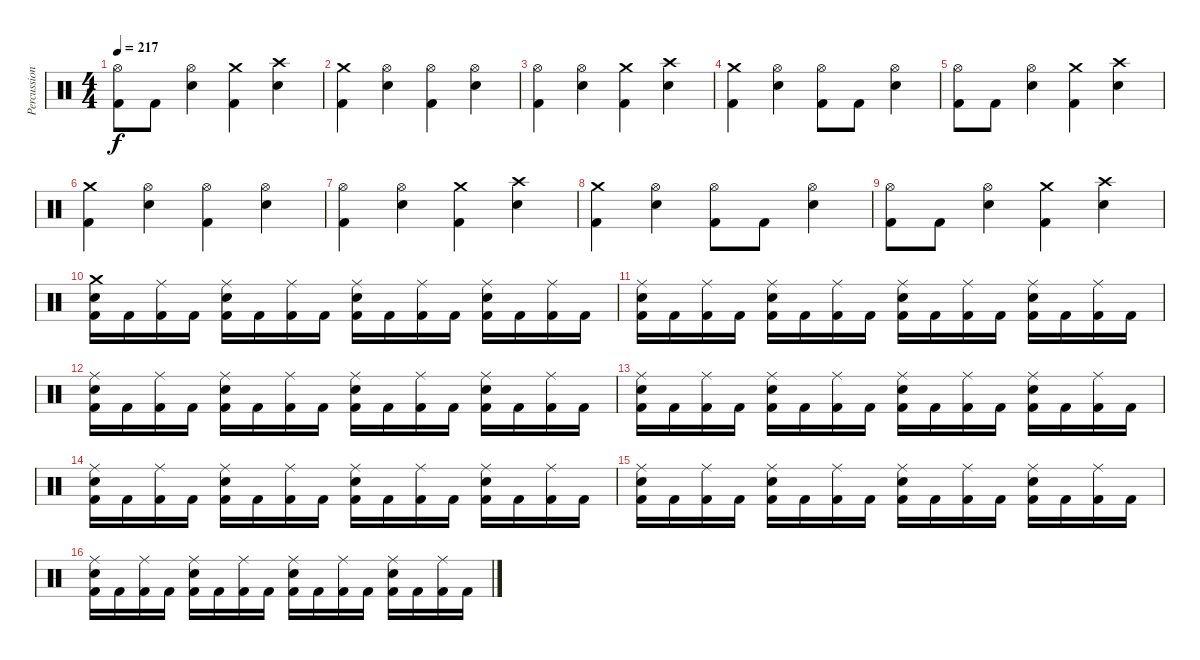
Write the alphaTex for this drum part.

\track ("Percussions" "Percussion") {instrument percussion}
\staff {score}
\articulation defaults
\ts (4 4)
\tempo 217
\clef neutral
\ks c
("Hi-Hat (open)" "Kick (hit) 2").8{dy f} "Kick (hit) 2".8 ("Hi-Hat (open)" "Electric Snare (hit)").4 ("Crash medium (hit)" "Kick (hit) 2").4 ("Crash high (hit)" "Electric Snare (hit)").4 |
("Crash medium (hit)" "Kick (hit) 2").4 ("Hi-Hat (open)" "Electric Snare (hit)").4 ("Hi-Hat (open)" "Kick (hit) 2").4 ("Hi-Hat (open)" "Electric Snare (hit)").4 |
("Hi-Hat (open)" "Kick (hit) 2").4 ("Hi-Hat (open)" "Electric Snare (hit)").4 ("Crash medium (hit)" "Kick (hit) 2").4 ("Crash high (hit)" "Electric Snare (hit)").4 |
("Crash medium (hit)" "Kick (hit) 2").4 ("Hi-Hat (open)" "Electric Snare (hit)").4 ("Hi-Hat (open)" "Kick (hit) 2").8 "Kick (hit) 2".8 ("Hi-Hat (open)" "Electric Snare (hit)").4 |
("Hi-Hat (open)" "Kick (hit) 2").8 "Kick (hit) 2".8 ("Hi-Hat (open)" "Electric Snare (hit)").4 ("Crash medium (hit)" "Kick (hit) 2").4 ("Crash high (hit)" "Electric Snare (hit)").4 |
("Crash medium (hit)" "Kick (hit) 2").4 ("Hi-Hat (open)" "Electric Snare (hit)").4 ("Hi-Hat (open)" "Kick (hit) 2").4 ("Hi-Hat (open)" "Electric Snare (hit)").4 |
("Hi-Hat (open)" "Kick (hit) 2").4 ("Hi-Hat (open)" "Electric Snare (hit)").4 ("Crash medium (hit)" "Kick (hit) 2").4 ("Crash high (hit)" "Electric Snare (hit)").4 |
("Crash medium (hit)" "Kick (hit) 2").4 ("Hi-Hat (open)" "Electric Snare (hit)").4 ("Hi-Hat (open)" "Kick (hit) 2").8 "Kick (hit) 2".8 ("Hi-Hat (open)" "Electric Snare (hit)").4 |
("Hi-Hat (open)" "Kick (hit) 2").8 "Kick (hit) 2".8 ("Hi-Hat (open)" "Electric Snare (hit)").4 ("Crash medium (hit)" "Kick (hit) 2").4 ("Crash high (hit)" "Electric Snare (hit)").4 |
("Crash medium (hit)" "Electric Snare (hit)" "Kick (hit) 2").16 "Kick (hit) 2".16 ("Ride (middle)" "Kick (hit) 2").16 "Kick (hit) 2".16 ("Ride (middle)" "Electric Snare (hit)" "Kick (hit) 2").16 "Kick (hit) 2".16 ("Ride (middle)" "Kick (hit) 2").16 "Kick (hit) 2".16 ("Ride (middle)" "Electric Snare (hit)" "Kick (hit) 2").16 "Kick (hit) 2".16 ("Ride (middle)" "Kick (hit) 2").16 "Kick (hit) 2".16 ("Ride (middle)" "Electric Snare (hit)" "Kick (hit) 2").16 "Kick (hit) 2".16 ("Ride (middle)" "Kick (hit) 2").16 "Kick (hit) 2".16 |
("Ride (middle)" "Electric Snare (hit)" "Kick (hit) 2").16 "Kick (hit) 2".16 ("Ride (middle)" "Kick (hit) 2").16 "Kick (hit) 2".16 ("Ride (middle)" "Electric Snare (hit)" "Kick (hit) 2").16 "Kick (hit) 2".16 ("Ride (middle)" "Kick (hit) 2").16 "Kick (hit) 2".16 ("Ride (middle)" "Electric Snare (hit)" "Kick (hit) 2").16 "Kick (hit) 2".16 ("Ride (middle)" "Kick (hit) 2").16 "Kick (hit) 2".16 ("Ride (middle)" "Electric Snare (hit)" "Kick (hit) 2").16 "Kick (hit) 2".16 ("Ride (middle)" "Kick (hit) 2").16 "Kick (hit) 2".16 |
("Ride (middle)" "Electric Snare (hit)" "Kick (hit) 2").16 "Kick (hit) 2".16 ("Ride (middle)" "Kick (hit) 2").16 "Kick (hit) 2".16 ("Ride (middle)" "Electric Snare (hit)" "Kick (hit) 2").16 "Kick (hit) 2".16 ("Ride (middle)" "Kick (hit) 2").16 "Kick (hit) 2".16 ("Ride (middle)" "Electric Snare (hit)" "Kick (hit) 2").16 "Kick (hit) 2".16 ("Ride (middle)" "Kick (hit) 2").16 "Kick (hit) 2".16 ("Ride (middle)" "Electric Snare (hit)" "Kick (hit) 2").16 "Kick (hit) 2".16 ("Ride (middle)" "Kick (hit) 2").16 "Kick (hit) 2".16 |
("Ride (middle)" "Electric Snare (hit)" "Kick (hit) 2").16 "Kick (hit) 2".16 ("Ride (middle)" "Kick (hit) 2").16 "Kick (hit) 2".16 ("Ride (middle)" "Electric Snare (hit)" "Kick (hit) 2").16 "Kick (hit) 2".16 ("Ride (middle)" "Kick (hit) 2").16 "Kick (hit) 2".16 ("Ride (middle)" "Electric Snare (hit)" "Kick (hit) 2").16 "Kick (hit) 2".16 ("Ride (middle)" "Kick (hit) 2").16 "Kick (hit) 2".16 ("Ride (middle)" "Electric Snare (hit)" "Kick (hit) 2").16 "Kick (hit) 2".16 ("Ride (middle)" "Kick (hit) 2").16 "Kick (hit) 2".16 |
("Ride (middle)" "Electric Snare (hit)" "Kick (hit) 2").16 "Kick (hit) 2".16 ("Ride (middle)" "Kick (hit) 2").16 "Kick (hit) 2".16 ("Ride (middle)" "Electric Snare (hit)" "Kick (hit) 2").16 "Kick (hit) 2".16 ("Ride (middle)" "Kick (hit) 2").16 "Kick (hit) 2".16 ("Ride (middle)" "Electric Snare (hit)" "Kick (hit) 2").16 "Kick (hit) 2".16 ("Ride (middle)" "Kick (hit) 2").16 "Kick (hit) 2".16 ("Ride (middle)" "Electric Snare (hit)" "Kick (hit) 2").16 "Kick (hit) 2".16 ("Ride (middle)" "Kick (hit) 2").16 "Kick (hit) 2".16 |
("Ride (middle)" "Electric Snare (hit)" "Kick (hit) 2").16 "Kick (hit) 2".16 ("Ride (middle)" "Kick (hit) 2").16 "Kick (hit) 2".16 ("Ride (middle)" "Electric Snare (hit)" "Kick (hit) 2").16 "Kick (hit) 2".16 ("Ride (middle)" "Kick (hit) 2").16 "Kick (hit) 2".16 ("Ride (middle)" "Electric Snare (hit)" "Kick (hit) 2").16 "Kick (hit) 2".16 ("Ride (middle)" "Kick (hit) 2").16 "Kick (hit) 2".16 ("Ride (middle)" "Electric Snare (hit)" "Kick (hit) 2").16 "Kick (hit) 2".16 ("Ride (middle)" "Kick (hit) 2").16 "Kick (hit) 2".16 |
("Ride (middle)" "Electric Snare (hit)" "Kick (hit) 2").16 "Kick (hit) 2".16 ("Ride (middle)" "Kick (hit) 2").16 "Kick (hit) 2".16 ("Ride (middle)" "Electric Snare (hit)" "Kick (hit) 2").16 "Kick (hit) 2".16 ("Ride (middle)" "Kick (hit) 2").16 "Kick (hit) 2".16 ("Ride (middle)" "Electric Snare (hit)" "Kick (hit) 2").16 "Kick (hit) 2".16 ("Ride (middle)" "Kick (hit) 2").16 "Kick (hit) 2".16 ("Ride (middle)" "Electric Snare (hit)" "Kick (hit) 2").16 "Kick (hit) 2".16 ("Ride (middle)" "Kick (hit) 2").16 "Kick (hit) 2".16
